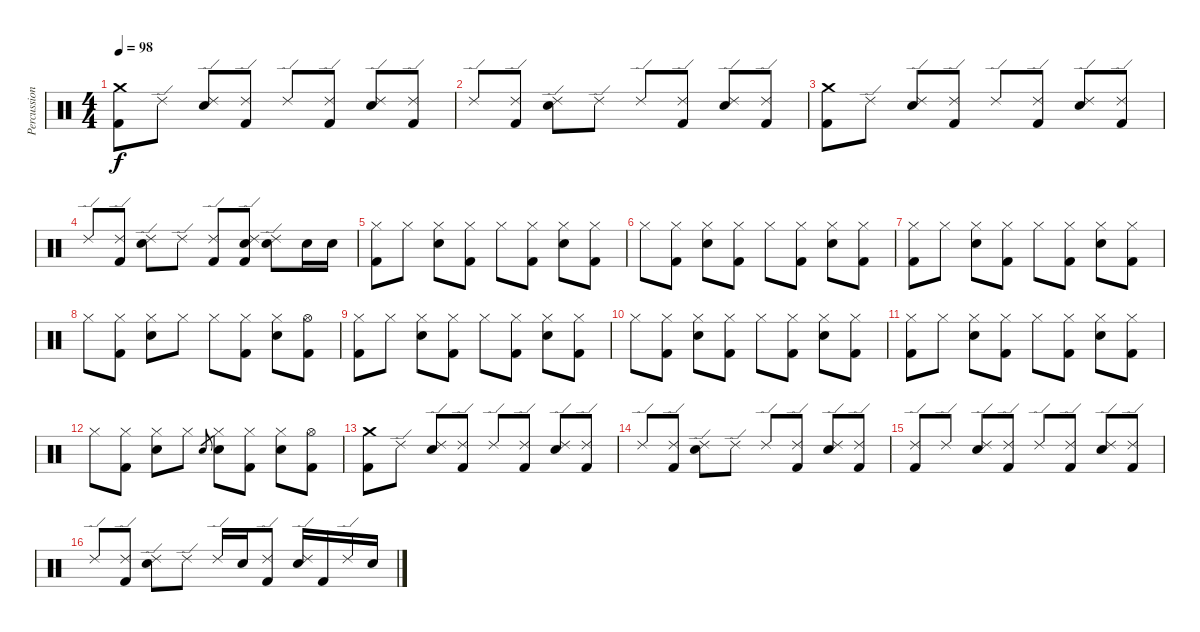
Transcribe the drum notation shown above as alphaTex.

\track ("Percussion" "Percussion") {instrument percussion}
\staff {score}
\articulation defaults
\ts (4 4)
\tempo 98
\clef neutral
\ks c
("Crash medium (hit)" "Kick (hit) 2").8{dy f} "Ride (edge) 2".8 ("Ride (edge) 2" "Electric Snare (hit)").8 ("Ride (edge) 2" "Kick (hit) 2").8 "Ride (edge) 2".8 ("Ride (edge) 2" "Kick (hit) 2").8 ("Ride (edge) 2" "Electric Snare (hit)").8 ("Ride (edge) 2" "Kick (hit) 2").8 |
"Ride (edge) 2".8 ("Ride (edge) 2" "Kick (hit) 2").8 ("Ride (edge) 2" "Electric Snare (hit)").8 "Ride (edge) 2".8 "Ride (edge) 2".8 ("Ride (edge) 2" "Kick (hit) 2").8 ("Ride (edge) 2" "Electric Snare (hit)").8 ("Ride (edge) 2" "Kick (hit) 2").8 |
("Crash medium (hit)" "Kick (hit) 2").8 "Ride (edge) 2".8 ("Ride (edge) 2" "Electric Snare (hit)").8 ("Ride (edge) 2" "Kick (hit) 2").8 "Ride (edge) 2".8 ("Ride (edge) 2" "Kick (hit) 2").8 ("Ride (edge) 2" "Electric Snare (hit)").8 ("Ride (edge) 2" "Kick (hit) 2").8 |
"Ride (edge) 2".8 ("Ride (edge) 2" "Kick (hit) 2").8 ("Ride (edge) 2" "Electric Snare (hit)").8 "Ride (edge) 2".8 ("Ride (edge) 2" "Kick (hit) 2").8 ("Ride (edge) 2" "Electric Snare (hit)" "Kick (hit) 2").8 ("Ride (edge) 2" "Electric Snare (hit)").8 "Electric Snare (hit)".16 "Electric Snare (hit)".16 |
("Hi-Hat (closed)" "Kick (hit) 2").8 "Hi-Hat (closed)".8 ("Hi-Hat (closed)" "Electric Snare (hit)").8 ("Hi-Hat (closed)" "Kick (hit) 2").8 "Hi-Hat (closed)".8 ("Hi-Hat (closed)" "Kick (hit) 2").8 ("Hi-Hat (closed)" "Electric Snare (hit)").8 ("Hi-Hat (closed)" "Kick (hit) 2").8 |
"Hi-Hat (closed)".8 ("Hi-Hat (closed)" "Kick (hit) 2").8 ("Hi-Hat (closed)" "Electric Snare (hit)").8 ("Hi-Hat (closed)" "Kick (hit) 2").8 "Hi-Hat (closed)".8 ("Hi-Hat (closed)" "Kick (hit) 2").8 ("Hi-Hat (closed)" "Electric Snare (hit)").8 ("Hi-Hat (closed)" "Kick (hit) 2").8 |
("Hi-Hat (closed)" "Kick (hit) 2").8 "Hi-Hat (closed)".8 ("Hi-Hat (closed)" "Electric Snare (hit)").8 ("Hi-Hat (closed)" "Kick (hit) 2").8 "Hi-Hat (closed)".8 ("Hi-Hat (closed)" "Kick (hit) 2").8 ("Hi-Hat (closed)" "Electric Snare (hit)").8 ("Hi-Hat (closed)" "Kick (hit) 2").8 |
"Hi-Hat (closed)".8 ("Hi-Hat (closed)" "Kick (hit) 2").8 ("Hi-Hat (closed)" "Electric Snare (hit)").8 "Hi-Hat (closed)".8 "Hi-Hat (closed)".8 ("Hi-Hat (closed)" "Kick (hit) 2").8 ("Hi-Hat (closed)" "Electric Snare (hit)").8 ("Hi-Hat (open)" "Kick (hit) 2").8 |
("Hi-Hat (closed)" "Kick (hit) 2").8 "Hi-Hat (closed)".8 ("Hi-Hat (closed)" "Electric Snare (hit)").8 ("Hi-Hat (closed)" "Kick (hit) 2").8 "Hi-Hat (closed)".8 ("Hi-Hat (closed)" "Kick (hit) 2").8 ("Hi-Hat (closed)" "Electric Snare (hit)").8 ("Hi-Hat (closed)" "Kick (hit) 2").8 |
"Hi-Hat (closed)".8 ("Hi-Hat (closed)" "Kick (hit) 2").8 ("Hi-Hat (closed)" "Electric Snare (hit)").8 ("Hi-Hat (closed)" "Kick (hit) 2").8 "Hi-Hat (closed)".8 ("Hi-Hat (closed)" "Kick (hit) 2").8 ("Hi-Hat (closed)" "Electric Snare (hit)").8 ("Hi-Hat (closed)" "Kick (hit) 2").8 |
("Hi-Hat (closed)" "Kick (hit) 2").8 "Hi-Hat (closed)".8 ("Hi-Hat (closed)" "Electric Snare (hit)").8 ("Hi-Hat (closed)" "Kick (hit) 2").8 "Hi-Hat (closed)".8 ("Hi-Hat (closed)" "Kick (hit) 2").8 ("Hi-Hat (closed)" "Electric Snare (hit)").8 ("Hi-Hat (closed)" "Kick (hit) 2").8 |
"Hi-Hat (closed)".8 ("Hi-Hat (closed)" "Kick (hit) 2").8 ("Hi-Hat (closed)" "Electric Snare (hit)").8 "Hi-Hat (closed)".8 "Electric Snare (hit)".8{gr} ("Hi-Hat (closed)" "Electric Snare (hit)").8 ("Hi-Hat (closed)" "Kick (hit) 2").8 ("Hi-Hat (closed)" "Electric Snare (hit)").8 ("Hi-Hat (open)" "Kick (hit) 2").8 |
("Crash medium (hit)" "Kick (hit) 2").8 "Ride (edge) 2".8 ("Ride (edge) 2" "Electric Snare (hit)").8 ("Ride (edge) 2" "Kick (hit) 2").8 "Ride (edge) 2".8 ("Ride (edge) 2" "Kick (hit) 2").8 ("Ride (edge) 2" "Electric Snare (hit)").8 ("Ride (edge) 2" "Kick (hit) 2").8 |
"Ride (edge) 2".8 ("Ride (edge) 2" "Kick (hit) 2").8 ("Ride (edge) 2" "Electric Snare (hit)").8 "Ride (edge) 2".8 "Ride (edge) 2".8 ("Ride (edge) 2" "Kick (hit) 2").8 ("Ride (edge) 2" "Electric Snare (hit)").8 ("Ride (edge) 2" "Kick (hit) 2").8 |
("Ride (edge) 2" "Kick (hit) 2").8 "Ride (edge) 2".8 ("Ride (edge) 2" "Electric Snare (hit)").8 ("Ride (edge) 2" "Kick (hit) 2").8 "Ride (edge) 2".8 ("Ride (edge) 2" "Kick (hit) 2").8 ("Ride (edge) 2" "Electric Snare (hit)").8 ("Ride (edge) 2" "Kick (hit) 2").8 |
"Ride (edge) 2".8 ("Ride (edge) 2" "Kick (hit) 2").8 ("Ride (edge) 2" "Electric Snare (hit)").8 "Ride (edge) 2".8 "Ride (edge) 2".16 "Electric Snare (hit)".16 ("Ride (edge) 2" "Kick (hit) 2").8 ("Ride (edge) 2" "Electric Snare (hit)").16 "Kick (hit) 2".16 "Ride (edge) 2".16 "Electric Snare (hit)".16
